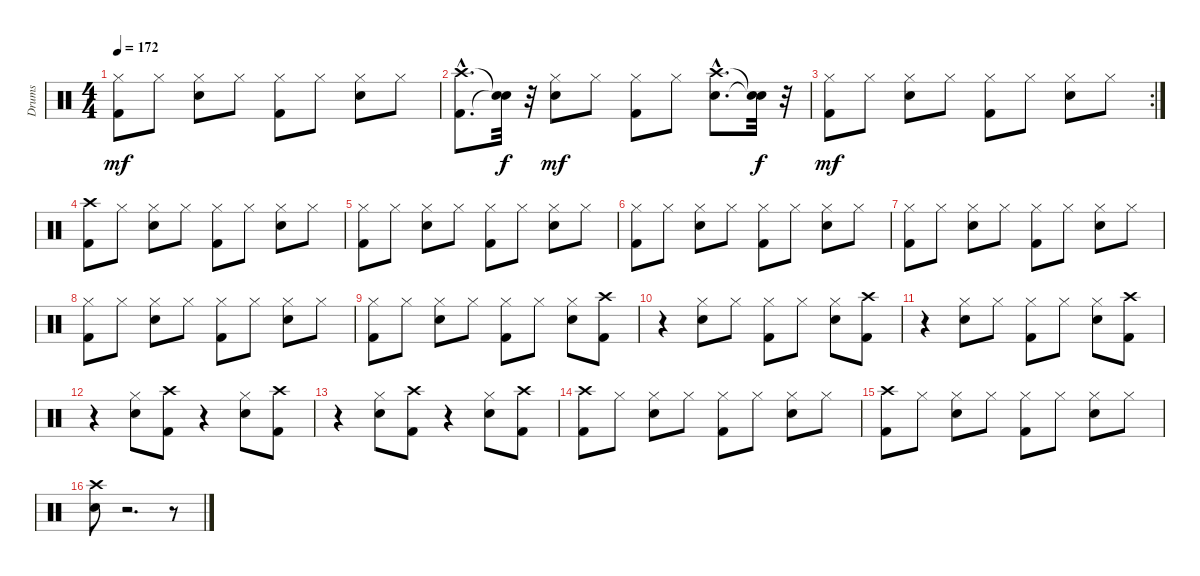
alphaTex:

\track ("Drums" "Drums") {instrument percussion}
\staff {score}
\articulation defaults
\ts (4 4)
\tempo 172
\clef neutral
\ks c
("Kick (hit) 2" "Hi-Hat (closed)").8{dy mf} "Hi-Hat (closed)".8 ("Snare (hit) 2" "Hi-Hat (closed)").8 "Hi-Hat (closed)".8 ("Kick (hit) 2" "Hi-Hat (closed)").8 "Hi-Hat (closed)".8 ("Snare (hit) 2" "Hi-Hat (closed)").8 "Hi-Hat (closed)".8 |
("Kick (hit) 2"{hac} "Crash high (hit)"{hac}).8{d} ("Snare (hit)"{t} "Snare (hit)"{t}).32{dy f} r.32 ("Snare (hit) 2" "Hi-Hat (closed)").8{dy mf} "Hi-Hat (closed)".8 ("Hi-Hat (closed)" "Kick (hit) 2").8 "Hi-Hat (closed)".8 ("Snare (hit) 2"{hac} "Crash high (hit)"{hac}).8{d} ("Snare (hit)"{t} "Snare (hit)"{t}).32{dy f} r.32 |
\rc 2
("Kick (hit) 2" "Hi-Hat (closed)").8{dy mf} "Hi-Hat (closed)".8 ("Snare (hit) 2" "Hi-Hat (closed)").8 "Hi-Hat (closed)".8 ("Kick (hit) 2" "Hi-Hat (closed)").8 "Hi-Hat (closed)".8 ("Snare (hit) 2" "Hi-Hat (closed)").8 "Hi-Hat (closed)".8 |
("Crash high (hit)" "Kick (hit) 2").8 "Hi-Hat (closed)".8 ("Hi-Hat (closed)" "Snare (hit) 2").8 "Hi-Hat (closed)".8 ("Hi-Hat (closed)" "Kick (hit) 2").8 "Hi-Hat (closed)".8 ("Hi-Hat (closed)" "Snare (hit) 2").8 "Hi-Hat (closed)".8 |
("Hi-Hat (closed)" "Kick (hit) 2").8 "Hi-Hat (closed)".8 ("Hi-Hat (closed)" "Snare (hit) 2").8 "Hi-Hat (closed)".8 ("Hi-Hat (closed)" "Kick (hit) 2").8 "Hi-Hat (closed)".8 ("Hi-Hat (closed)" "Snare (hit) 2").8 "Hi-Hat (closed)".8 |
("Hi-Hat (closed)" "Kick (hit) 2").8 "Hi-Hat (closed)".8 ("Hi-Hat (closed)" "Snare (hit) 2").8 "Hi-Hat (closed)".8 ("Hi-Hat (closed)" "Kick (hit) 2").8 "Hi-Hat (closed)".8 ("Hi-Hat (closed)" "Snare (hit) 2").8 "Hi-Hat (closed)".8 |
("Hi-Hat (closed)" "Kick (hit) 2").8 "Hi-Hat (closed)".8 ("Hi-Hat (closed)" "Snare (hit) 2").8 "Hi-Hat (closed)".8 ("Hi-Hat (closed)" "Kick (hit) 2").8 "Hi-Hat (closed)".8 ("Hi-Hat (closed)" "Snare (hit) 2").8 "Hi-Hat (closed)".8 |
("Hi-Hat (closed)" "Kick (hit) 2").8 "Hi-Hat (closed)".8 ("Hi-Hat (closed)" "Snare (hit) 2").8 "Hi-Hat (closed)".8 ("Hi-Hat (closed)" "Kick (hit) 2").8 "Hi-Hat (closed)".8 ("Hi-Hat (closed)" "Snare (hit) 2").8 "Hi-Hat (closed)".8 |
("Kick (hit) 2" "Hi-Hat (closed)").8 "Hi-Hat (closed)".8 ("Snare (hit) 2" "Hi-Hat (closed)").8 "Hi-Hat (closed)".8 ("Kick (hit) 2" "Hi-Hat (closed)").8 "Hi-Hat (closed)".8 ("Snare (hit) 2" "Hi-Hat (closed)").8 ("Kick (hit) 2" "Crash high (hit)").8 |
r.4 ("Hi-Hat (closed)" "Snare (hit) 2").8 "Hi-Hat (closed)".8 ("Hi-Hat (closed)" "Kick (hit) 2").8 "Hi-Hat (closed)".8 ("Hi-Hat (closed)" "Snare (hit) 2").8 ("Crash high (hit)" "Kick (hit) 2").8 |
r.4 ("Hi-Hat (closed)" "Snare (hit) 2").8 "Hi-Hat (closed)".8 ("Hi-Hat (closed)" "Kick (hit) 2").8 "Hi-Hat (closed)".8 ("Hi-Hat (closed)" "Snare (hit) 2").8 ("Crash high (hit)" "Kick (hit) 2").8 |
r.4 ("Hi-Hat (closed)" "Snare (hit) 2").8 ("Kick (hit) 2" "Crash high (hit)").8 r.4 ("Snare (hit) 2" "Hi-Hat (closed)").8 ("Kick (hit) 2" "Crash high (hit)").8 |
r.4 ("Hi-Hat (closed)" "Snare (hit) 2").8 ("Kick (hit) 2" "Crash high (hit)").8 r.4 ("Hi-Hat (closed)" "Snare (hit) 2").8 ("Kick (hit) 2" "Crash high (hit)").8 |
("Crash high (hit)" "Kick (hit) 2").8 "Hi-Hat (closed)".8 ("Hi-Hat (closed)" "Snare (hit) 2").8 "Hi-Hat (closed)".8 ("Hi-Hat (closed)" "Kick (hit) 2").8 "Hi-Hat (closed)".8 ("Hi-Hat (closed)" "Snare (hit) 2").8 "Hi-Hat (closed)".8 |
("Crash high (hit)" "Kick (hit) 2").8 "Hi-Hat (closed)".8 ("Hi-Hat (closed)" "Snare (hit) 2").8 "Hi-Hat (closed)".8 ("Hi-Hat (closed)" "Kick (hit) 2").8 "Hi-Hat (closed)".8 ("Hi-Hat (closed)" "Snare (hit) 2").8 "Hi-Hat (closed)".8 |
("Crash high (hit)" "Snare (hit) 2").8 r.2{d} r.8
